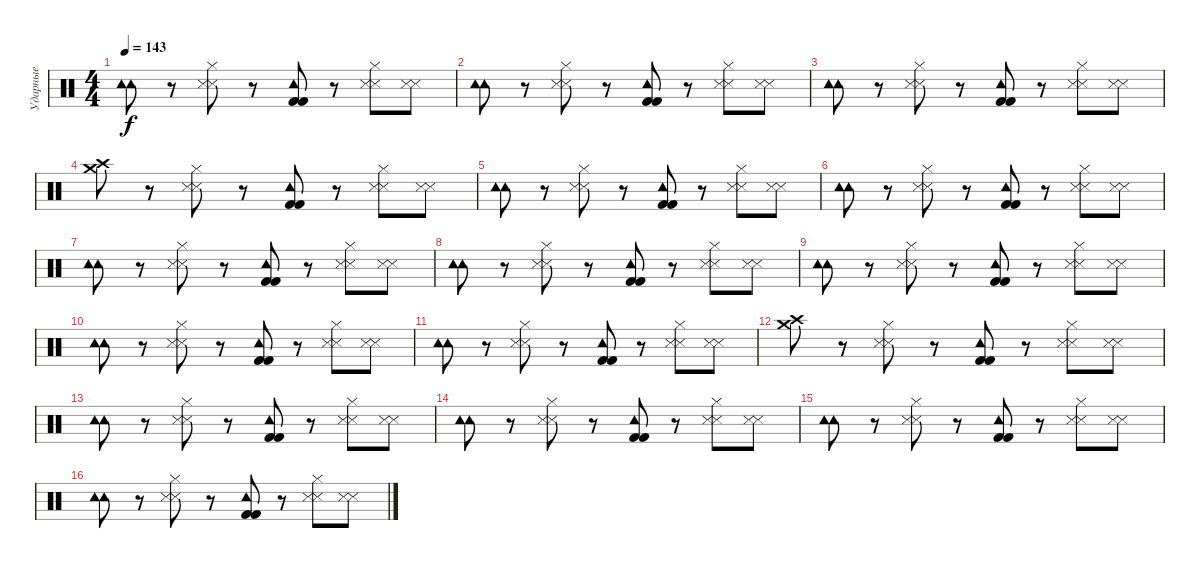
\track ("Ударные" "Ударные") {instrument percussion}
\staff {score}
\articulation defaults
\ts (4 4)
\tempo 143
\clef neutral
\ks c
("Tambourine (hit)" "Tambourine (hit)").8{dy f} r.8 ("Hi-Hat (closed)" "Metronome (hit)" "Metronome (hit)").8 r.8 ("Tambourine (hit)" "Kick (hit) 2" "Kick (hit) 2").8 r.8 ("Hi-Hat (closed)" "Metronome (hit)" "Metronome (hit)").8 ("Metronome (hit)" "Metronome (hit)").8 |
("Tambourine (hit)" "Tambourine (hit)").8 r.8 ("Hi-Hat (closed)" "Metronome (hit)" "Metronome (hit)").8 r.8 ("Tambourine (hit)" "Kick (hit) 2" "Kick (hit) 2").8 r.8 ("Hi-Hat (closed)" "Metronome (hit)" "Metronome (hit)").8 ("Metronome (hit)" "Metronome (hit)").8 |
("Tambourine (hit)" "Tambourine (hit)").8 r.8 ("Hi-Hat (closed)" "Metronome (hit)" "Metronome (hit)").8 r.8 ("Tambourine (hit)" "Kick (hit) 2" "Kick (hit) 2").8 r.8 ("Hi-Hat (closed)" "Metronome (hit)" "Metronome (hit)").8 ("Metronome (hit)" "Metronome (hit)").8 |
("Crash medium (hit)" "Crash high (hit)").8 r.8 ("Hi-Hat (closed)" "Metronome (hit)" "Metronome (hit)").8 r.8 ("Tambourine (hit)" "Kick (hit) 2" "Kick (hit) 2").8 r.8 ("Hi-Hat (closed)" "Metronome (hit)" "Metronome (hit)").8 ("Metronome (hit)" "Metronome (hit)").8 |
("Tambourine (hit)" "Tambourine (hit)").8 r.8 ("Hi-Hat (closed)" "Metronome (hit)" "Metronome (hit)").8 r.8 ("Tambourine (hit)" "Kick (hit) 2" "Kick (hit) 2").8 r.8 ("Hi-Hat (closed)" "Metronome (hit)" "Metronome (hit)").8 ("Metronome (hit)" "Metronome (hit)").8 |
("Tambourine (hit)" "Tambourine (hit)").8 r.8 ("Hi-Hat (closed)" "Metronome (hit)" "Metronome (hit)").8 r.8 ("Tambourine (hit)" "Kick (hit) 2" "Kick (hit) 2").8 r.8 ("Hi-Hat (closed)" "Metronome (hit)" "Metronome (hit)").8 ("Metronome (hit)" "Metronome (hit)").8 |
("Tambourine (hit)" "Tambourine (hit)").8 r.8 ("Hi-Hat (closed)" "Metronome (hit)" "Metronome (hit)").8 r.8 ("Tambourine (hit)" "Kick (hit) 2" "Kick (hit) 2").8 r.8 ("Hi-Hat (closed)" "Metronome (hit)" "Metronome (hit)").8 ("Metronome (hit)" "Metronome (hit)").8 |
("Tambourine (hit)" "Tambourine (hit)").8 r.8 ("Hi-Hat (closed)" "Metronome (hit)" "Metronome (hit)").8 r.8 ("Tambourine (hit)" "Kick (hit) 2" "Kick (hit) 2").8 r.8 ("Hi-Hat (closed)" "Metronome (hit)" "Metronome (hit)").8 ("Metronome (hit)" "Metronome (hit)").8 |
("Tambourine (hit)" "Tambourine (hit)").8 r.8 ("Hi-Hat (closed)" "Metronome (hit)" "Metronome (hit)").8 r.8 ("Tambourine (hit)" "Kick (hit) 2" "Kick (hit) 2").8 r.8 ("Hi-Hat (closed)" "Metronome (hit)" "Metronome (hit)").8 ("Metronome (hit)" "Metronome (hit)").8 |
("Tambourine (hit)" "Tambourine (hit)").8 r.8 ("Hi-Hat (closed)" "Metronome (hit)" "Metronome (hit)").8 r.8 ("Tambourine (hit)" "Kick (hit) 2" "Kick (hit) 2").8 r.8 ("Hi-Hat (closed)" "Metronome (hit)" "Metronome (hit)").8 ("Metronome (hit)" "Metronome (hit)").8 |
("Tambourine (hit)" "Tambourine (hit)").8 r.8 ("Hi-Hat (closed)" "Metronome (hit)" "Metronome (hit)").8 r.8 ("Tambourine (hit)" "Kick (hit) 2" "Kick (hit) 2").8 r.8 ("Hi-Hat (closed)" "Metronome (hit)" "Metronome (hit)").8 ("Metronome (hit)" "Metronome (hit)").8 |
("Crash medium (hit)" "Crash high (hit)").8 r.8 ("Hi-Hat (closed)" "Metronome (hit)" "Metronome (hit)").8 r.8 ("Tambourine (hit)" "Kick (hit) 2" "Kick (hit) 2").8 r.8 ("Hi-Hat (closed)" "Metronome (hit)" "Metronome (hit)").8 ("Metronome (hit)" "Metronome (hit)").8 |
("Tambourine (hit)" "Tambourine (hit)").8 r.8 ("Hi-Hat (closed)" "Metronome (hit)" "Metronome (hit)").8 r.8 ("Tambourine (hit)" "Kick (hit) 2" "Kick (hit) 2").8 r.8 ("Hi-Hat (closed)" "Metronome (hit)" "Metronome (hit)").8 ("Metronome (hit)" "Metronome (hit)").8 |
("Tambourine (hit)" "Tambourine (hit)").8 r.8 ("Hi-Hat (closed)" "Metronome (hit)" "Metronome (hit)").8 r.8 ("Tambourine (hit)" "Kick (hit) 2" "Kick (hit) 2").8 r.8 ("Hi-Hat (closed)" "Metronome (hit)" "Metronome (hit)").8 ("Metronome (hit)" "Metronome (hit)").8 |
("Tambourine (hit)" "Tambourine (hit)").8 r.8 ("Hi-Hat (closed)" "Metronome (hit)" "Metronome (hit)").8 r.8 ("Tambourine (hit)" "Kick (hit) 2" "Kick (hit) 2").8 r.8 ("Hi-Hat (closed)" "Metronome (hit)" "Metronome (hit)").8 ("Metronome (hit)" "Metronome (hit)").8 |
("Tambourine (hit)" "Tambourine (hit)").8 r.8 ("Hi-Hat (closed)" "Metronome (hit)" "Metronome (hit)").8 r.8 ("Tambourine (hit)" "Kick (hit) 2" "Kick (hit) 2").8 r.8 ("Hi-Hat (closed)" "Metronome (hit)" "Metronome (hit)").8 ("Metronome (hit)" "Metronome (hit)").8
